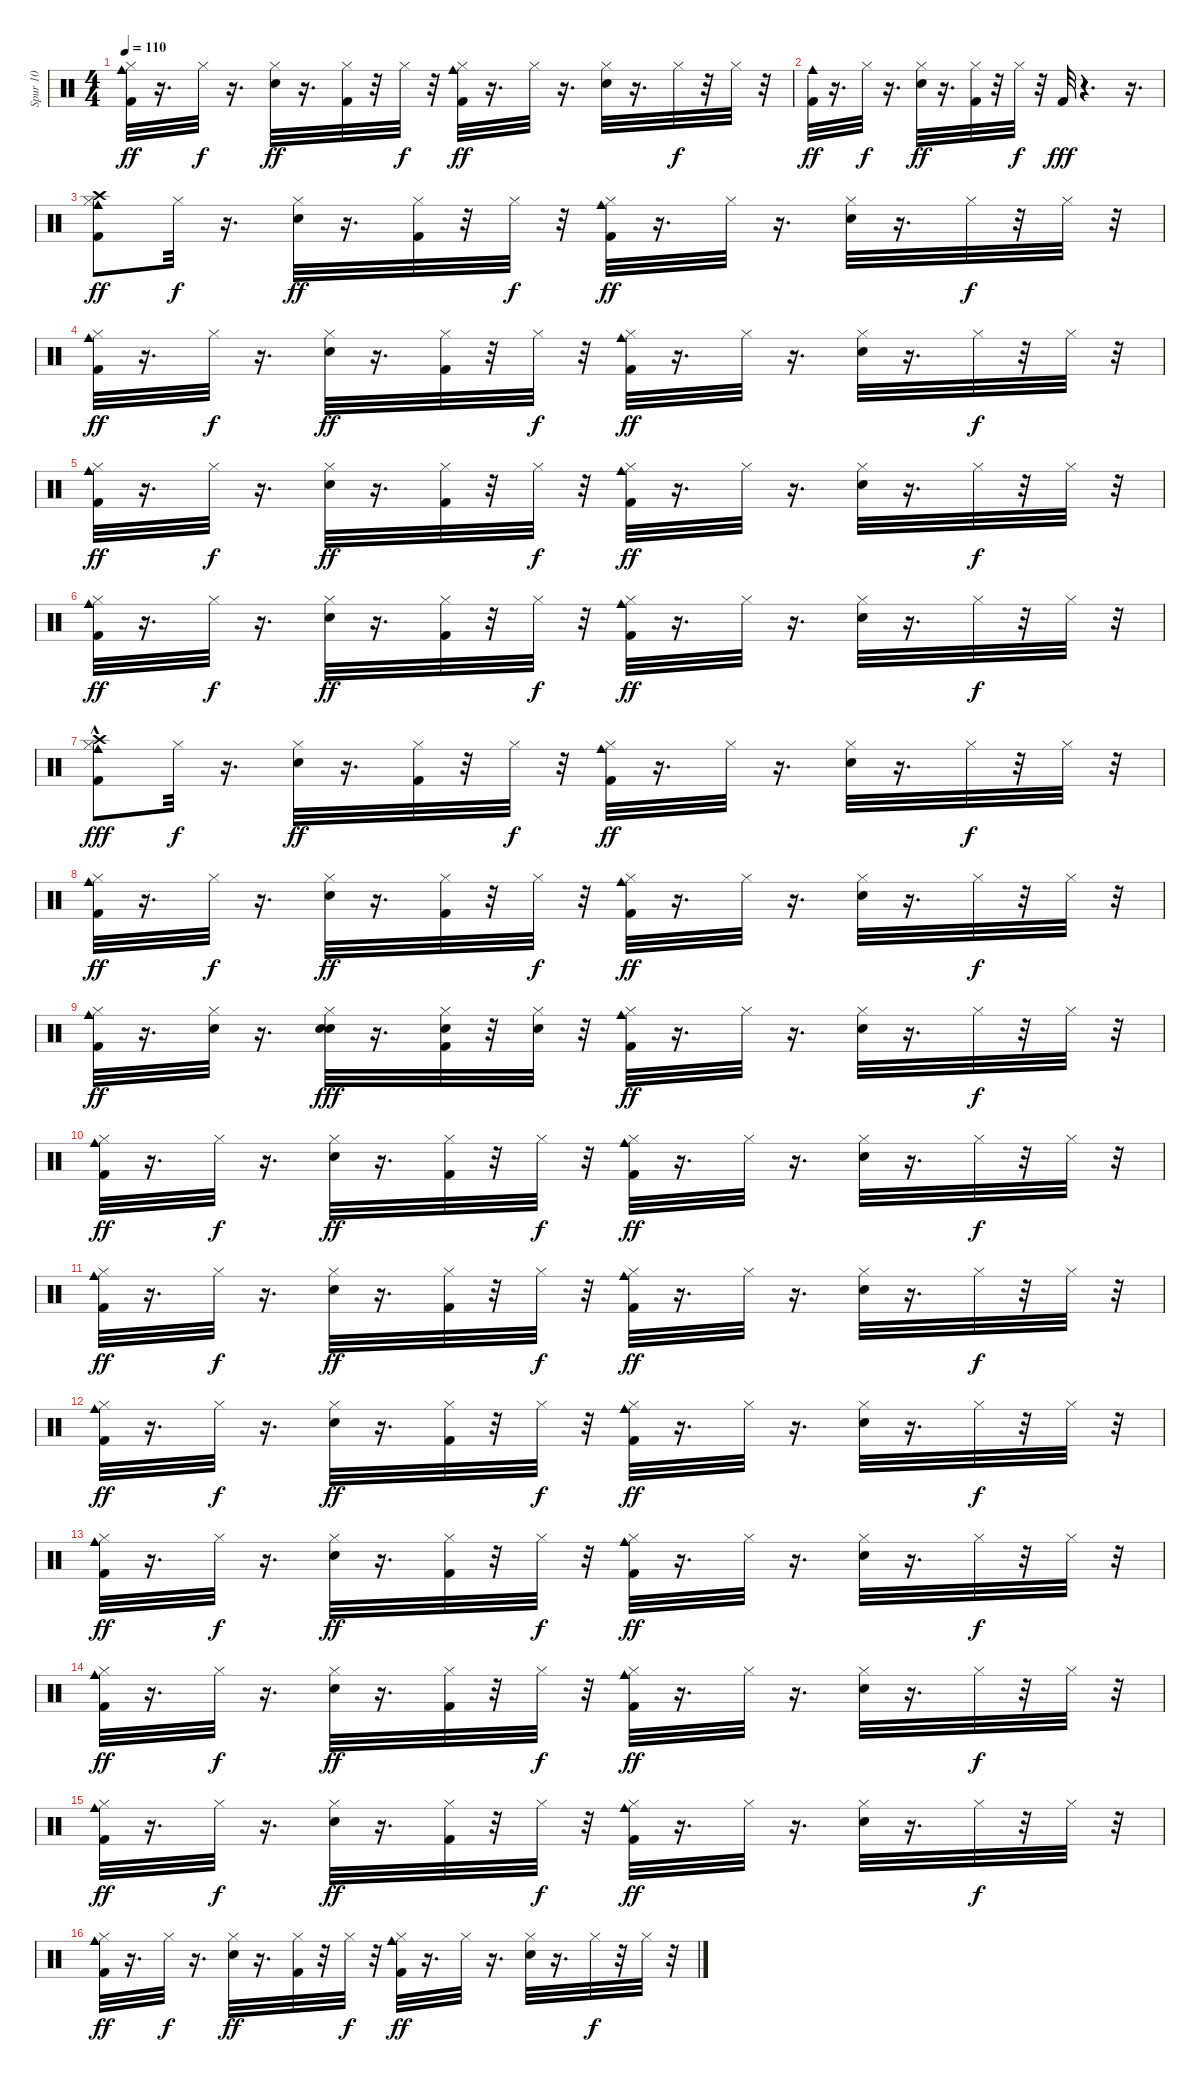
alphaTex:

\track ("Spur 10" "Spur 10") {instrument percussion}
\staff {score}
\articulation defaults
\ts (4 4)
\tempo 110
\clef neutral
\ks c
("Kick (hit) 2" "Cowbell medium (hit)" "Hi-Hat (closed)").32{dy ff} r.16{d} "Hi-Hat (closed)".32{dy f} r.16{d} ("Snare (hit) 2" "Hi-Hat (closed)").32{dy ff} r.16{d} ("Kick (hit) 2" "Hi-Hat (closed)").32 r.32 "Hi-Hat (closed)".32{dy f} r.32 ("Kick (hit) 2" "Cowbell medium (hit)" "Hi-Hat (closed)").32{dy ff} r.16{d} "Hi-Hat (closed)".32 r.16{d} ("Snare (hit) 2" "Hi-Hat (closed)").32 r.16{d} "Hi-Hat (closed)".32{dy f} r.32 "Hi-Hat (closed)".32 r.32 |
("Kick (hit) 2" "Cowbell medium (hit)").32{dy ff} r.16{d} "Hi-Hat (closed)".32{dy f} r.16{d} ("Snare (hit) 2" "Hi-Hat (closed)").32{dy ff} r.16{d} ("Kick (hit) 2" "Hi-Hat (closed)").32 r.32 "Hi-Hat (closed)".32{dy f} r.32 "Kick (hit) 2".32{dy fff} r.4{d} r.16{d} |
("Kick (hit) 2" "Cowbell medium (hit)" "Hi-Hat (closed)" "Crash high (hit)").8{dy ff} "Hi-Hat (closed)".32{dy f} r.16{d} ("Snare (hit) 2" "Hi-Hat (closed)").32{dy ff} r.16{d} ("Kick (hit) 2" "Hi-Hat (closed)").32 r.32 "Hi-Hat (closed)".32{dy f} r.32 ("Kick (hit) 2" "Cowbell medium (hit)" "Hi-Hat (closed)").32{dy ff} r.16{d} "Hi-Hat (closed)".32 r.16{d} ("Snare (hit) 2" "Hi-Hat (closed)").32 r.16{d} "Hi-Hat (closed)".32{dy f} r.32 "Hi-Hat (closed)".32 r.32 |
("Kick (hit) 2" "Cowbell medium (hit)" "Hi-Hat (closed)").32{dy ff} r.16{d} "Hi-Hat (closed)".32{dy f} r.16{d} ("Snare (hit) 2" "Hi-Hat (closed)").32{dy ff} r.16{d} ("Kick (hit) 2" "Hi-Hat (closed)").32 r.32 "Hi-Hat (closed)".32{dy f} r.32 ("Kick (hit) 2" "Cowbell medium (hit)" "Hi-Hat (closed)").32{dy ff} r.16{d} "Hi-Hat (closed)".32 r.16{d} ("Snare (hit) 2" "Hi-Hat (closed)").32 r.16{d} "Hi-Hat (closed)".32{dy f} r.32 "Hi-Hat (closed)".32 r.32 |
("Kick (hit) 2" "Cowbell medium (hit)" "Hi-Hat (closed)").32{dy ff} r.16{d} "Hi-Hat (closed)".32{dy f} r.16{d} ("Snare (hit) 2" "Hi-Hat (closed)").32{dy ff} r.16{d} ("Kick (hit) 2" "Hi-Hat (closed)").32 r.32 "Hi-Hat (closed)".32{dy f} r.32 ("Kick (hit) 2" "Cowbell medium (hit)" "Hi-Hat (closed)").32{dy ff} r.16{d} "Hi-Hat (closed)".32 r.16{d} ("Snare (hit) 2" "Hi-Hat (closed)").32 r.16{d} "Hi-Hat (closed)".32{dy f} r.32 "Hi-Hat (closed)".32 r.32 |
("Kick (hit) 2" "Cowbell medium (hit)" "Hi-Hat (closed)").32{dy ff} r.16{d} "Hi-Hat (closed)".32{dy f} r.16{d} ("Snare (hit) 2" "Hi-Hat (closed)").32{dy ff} r.16{d} ("Kick (hit) 2" "Hi-Hat (closed)").32 r.32 "Hi-Hat (closed)".32{dy f} r.32 ("Kick (hit) 2" "Cowbell medium (hit)" "Hi-Hat (closed)").32{dy ff} r.16{d} "Hi-Hat (closed)".32 r.16{d} ("Snare (hit) 2" "Hi-Hat (closed)").32 r.16{d} "Hi-Hat (closed)".32{dy f} r.32 "Hi-Hat (closed)".32 r.32 |
("Kick (hit) 2" "Cowbell medium (hit)" "Hi-Hat (closed)" "Crash high (hit)"{hac}).8{dy fff} "Hi-Hat (closed)".32{dy f} r.16{d} ("Snare (hit) 2" "Hi-Hat (closed)").32{dy ff} r.16{d} ("Kick (hit) 2" "Hi-Hat (closed)").32 r.32 "Hi-Hat (closed)".32{dy f} r.32 ("Kick (hit) 2" "Cowbell medium (hit)" "Hi-Hat (closed)").32{dy ff} r.16{d} "Hi-Hat (closed)".32 r.16{d} ("Snare (hit) 2" "Hi-Hat (closed)").32 r.16{d} "Hi-Hat (closed)".32{dy f} r.32 "Hi-Hat (closed)".32 r.32 |
("Kick (hit) 2" "Cowbell medium (hit)" "Hi-Hat (closed)").32{dy ff} r.16{d} "Hi-Hat (closed)".32{dy f} r.16{d} ("Snare (hit) 2" "Hi-Hat (closed)").32{dy ff} r.16{d} ("Kick (hit) 2" "Hi-Hat (closed)").32 r.32 "Hi-Hat (closed)".32{dy f} r.32 ("Kick (hit) 2" "Cowbell medium (hit)" "Hi-Hat (closed)").32{dy ff} r.16{d} "Hi-Hat (closed)".32 r.16{d} ("Snare (hit) 2" "Hi-Hat (closed)").32 r.16{d} "Hi-Hat (closed)".32{dy f} r.32 "Hi-Hat (closed)".32 r.32 |
("Kick (hit) 2" "Cowbell medium (hit)" "Hi-Hat (closed)").32{dy ff} r.16{d} ("Hi-Hat (closed)" "Hand Clap (hit)").32 r.16{d} ("Snare (hit) 2" "Hi-Hat (closed)" "Hand Clap (hit)").32{dy fff} r.16{d} ("Kick (hit) 2" "Hi-Hat (closed)" "Hand Clap (hit)").32 r.32 ("Hand Clap (hit)" "Hi-Hat (closed)").32 r.32 ("Kick (hit) 2" "Cowbell medium (hit)" "Hi-Hat (closed)").32{dy ff} r.16{d} "Hi-Hat (closed)".32 r.16{d} ("Snare (hit) 2" "Hi-Hat (closed)").32 r.16{d} "Hi-Hat (closed)".32{dy f} r.32 "Hi-Hat (closed)".32 r.32 |
("Kick (hit) 2" "Cowbell medium (hit)" "Hi-Hat (closed)").32{dy ff} r.16{d} "Hi-Hat (closed)".32{dy f} r.16{d} ("Snare (hit) 2" "Hi-Hat (closed)").32{dy ff} r.16{d} ("Kick (hit) 2" "Hi-Hat (closed)").32 r.32 "Hi-Hat (closed)".32{dy f} r.32 ("Kick (hit) 2" "Cowbell medium (hit)" "Hi-Hat (closed)").32{dy ff} r.16{d} "Hi-Hat (closed)".32 r.16{d} ("Snare (hit) 2" "Hi-Hat (closed)").32 r.16{d} "Hi-Hat (closed)".32{dy f} r.32 "Hi-Hat (closed)".32 r.32 |
("Kick (hit) 2" "Cowbell medium (hit)" "Hi-Hat (closed)").32{dy ff} r.16{d} "Hi-Hat (closed)".32{dy f} r.16{d} ("Snare (hit) 2" "Hi-Hat (closed)").32{dy ff} r.16{d} ("Kick (hit) 2" "Hi-Hat (closed)").32 r.32 "Hi-Hat (closed)".32{dy f} r.32 ("Kick (hit) 2" "Cowbell medium (hit)" "Hi-Hat (closed)").32{dy ff} r.16{d} "Hi-Hat (closed)".32 r.16{d} ("Snare (hit) 2" "Hi-Hat (closed)").32 r.16{d} "Hi-Hat (closed)".32{dy f} r.32 "Hi-Hat (closed)".32 r.32 |
("Kick (hit) 2" "Cowbell medium (hit)" "Hi-Hat (closed)").32{dy ff} r.16{d} "Hi-Hat (closed)".32{dy f} r.16{d} ("Snare (hit) 2" "Hi-Hat (closed)").32{dy ff} r.16{d} ("Kick (hit) 2" "Hi-Hat (closed)").32 r.32 "Hi-Hat (closed)".32{dy f} r.32 ("Kick (hit) 2" "Cowbell medium (hit)" "Hi-Hat (closed)").32{dy ff} r.16{d} "Hi-Hat (closed)".32 r.16{d} ("Snare (hit) 2" "Hi-Hat (closed)").32 r.16{d} "Hi-Hat (closed)".32{dy f} r.32 "Hi-Hat (closed)".32 r.32 |
("Kick (hit) 2" "Cowbell medium (hit)" "Hi-Hat (closed)").32{dy ff} r.16{d} "Hi-Hat (closed)".32{dy f} r.16{d} ("Snare (hit) 2" "Hi-Hat (closed)").32{dy ff} r.16{d} ("Kick (hit) 2" "Hi-Hat (closed)").32 r.32 "Hi-Hat (closed)".32{dy f} r.32 ("Kick (hit) 2" "Cowbell medium (hit)" "Hi-Hat (closed)").32{dy ff} r.16{d} "Hi-Hat (closed)".32 r.16{d} ("Snare (hit) 2" "Hi-Hat (closed)").32 r.16{d} "Hi-Hat (closed)".32{dy f} r.32 "Hi-Hat (closed)".32 r.32 |
("Kick (hit) 2" "Cowbell medium (hit)" "Hi-Hat (closed)").32{dy ff} r.16{d} "Hi-Hat (closed)".32{dy f} r.16{d} ("Snare (hit) 2" "Hi-Hat (closed)").32{dy ff} r.16{d} ("Kick (hit) 2" "Hi-Hat (closed)").32 r.32 "Hi-Hat (closed)".32{dy f} r.32 ("Kick (hit) 2" "Cowbell medium (hit)" "Hi-Hat (closed)").32{dy ff} r.16{d} "Hi-Hat (closed)".32 r.16{d} ("Snare (hit) 2" "Hi-Hat (closed)").32 r.16{d} "Hi-Hat (closed)".32{dy f} r.32 "Hi-Hat (closed)".32 r.32 |
("Kick (hit) 2" "Cowbell medium (hit)" "Hi-Hat (closed)").32{dy ff} r.16{d} "Hi-Hat (closed)".32{dy f} r.16{d} ("Snare (hit) 2" "Hi-Hat (closed)").32{dy ff} r.16{d} ("Kick (hit) 2" "Hi-Hat (closed)").32 r.32 "Hi-Hat (closed)".32{dy f} r.32 ("Kick (hit) 2" "Cowbell medium (hit)" "Hi-Hat (closed)").32{dy ff} r.16{d} "Hi-Hat (closed)".32 r.16{d} ("Snare (hit) 2" "Hi-Hat (closed)").32 r.16{d} "Hi-Hat (closed)".32{dy f} r.32 "Hi-Hat (closed)".32 r.32 |
("Kick (hit) 2" "Cowbell medium (hit)" "Hi-Hat (closed)").32{dy ff} r.16{d} "Hi-Hat (closed)".32{dy f} r.16{d} ("Snare (hit) 2" "Hi-Hat (closed)").32{dy ff} r.16{d} ("Kick (hit) 2" "Hi-Hat (closed)").32 r.32 "Hi-Hat (closed)".32{dy f} r.32 ("Kick (hit) 2" "Cowbell medium (hit)" "Hi-Hat (closed)").32{dy ff} r.16{d} "Hi-Hat (closed)".32 r.16{d} ("Snare (hit) 2" "Hi-Hat (closed)").32 r.16{d} "Hi-Hat (closed)".32{dy f} r.32 "Hi-Hat (closed)".32 r.32
